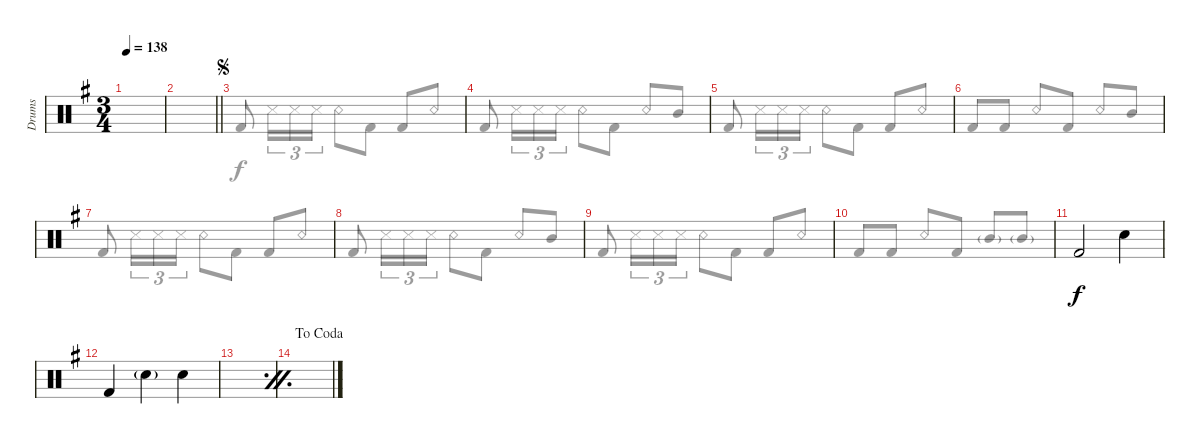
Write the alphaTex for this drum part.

\defaultSystemsLayout 4
\bracketExtendMode groupsimilarinstruments
\otherSystemsTrackNameOrientation horizontal
\track ("Drumkit" "Drums") {instrument percussion}
\staff {score}
\articulation defaults
\voice
\ts (3 4)
\scale
0.27752
\tempo 138
\accidentals auto
\clef neutral
\ottava regular
\simile none
\ks eminor
|
\scale
0.237483
\barLineRight lightlight
|
\scale
0.283172
\jump segno
|
\scale
0.23135 |
\scale
0.264197 |
\scale
0.219284 |
\scale
0.25944 |
\scale
0.26789 |
\scale
0.226075 |
\scale
0.235089 |
\scale
0.381933 "Kick (hit) 2"{acc forcenatural}.2{beam Up} "Snare (hit) 2"{acc forcenatural}.4{beam Down} |
\scale
0.445449 "Kick (hit) 2"{acc forcenatural}.4{beam Up} "Snare (hit) 2"{g acc forcenatural}.4{beam Down} "Snare (hit) 2"{acc forcenatural}.4{beam Down} |
\scale
0.0631793
\simile firstofdouble
|
\scale
0.0666495
\jump dacoda
\simile secondofdouble
|
\scale
0.494887
\simile none
|
\scale
0.662779
\voice
\clef neutral
\ottava regular
\simile none
\ks eminor
|
\barLineRight lightlight
|
"Kick (hit) 2"{acc forcenatural}.8{beam Up} "Snare (side stick) 3"{acc forcenatural}.16{tu (3 2) beam Down} "Snare (side stick) 3"{acc forcenatural}.16{tu (3 2) beam Down} "Snare (side stick) 3"{acc forcenatural}.16{tu (3 2) beam Down} "Snare (rim shot)"{acc forcenatural}.8{beam Down} "Kick (hit) 2"{acc forcenatural}.8{beam Up} "Kick (hit) 2"{acc forcenatural}.8{beam Up} "Snare (rim shot)"{acc forcenatural}.8{beam Up} |
"Kick (hit) 2"{acc forcenatural}.8{beam Up} "Snare (side stick) 3"{acc forcenatural}.16{tu (3 2) beam Down} "Snare (side stick) 3"{acc forcenatural}.16{tu (3 2) beam Down} "Snare (side stick) 3"{acc forcenatural}.16{tu (3 2) beam Down} "Snare (rim shot)"{acc forcenatural}.8{beam Down} "Kick (hit) 2"{acc forcenatural}.8{beam Up} "Snare (rim shot)"{acc forcenatural}.8{beam Up} "Mid Tom (hit)"{acc forcenatural}.8{beam Up} |
"Kick (hit) 2"{acc forcenatural}.8{beam Up} "Snare (side stick) 3"{acc forcenatural}.16{tu (3 2) beam Down} "Snare (side stick) 3"{acc forcenatural}.16{tu (3 2) beam Down} "Snare (side stick) 3"{acc forcenatural}.16{tu (3 2) beam Down} "Snare (rim shot)"{acc forcenatural}.8{beam Down} "Kick (hit) 2"{acc forcenatural}.8{beam Up} "Kick (hit) 2"{acc forcenatural}.8{beam Up} "Snare (rim shot)"{acc forcenatural}.8{beam Up} |
"Kick (hit) 2"{acc forcenatural}.8{beam Up} "Kick (hit) 2"{acc forcenatural}.8{beam Up} "Snare (rim shot)"{acc forcenatural}.8{beam Up} "Kick (hit) 2"{acc forcenatural}.8{beam Up} "Snare (rim shot)"{acc forcenatural}.8{beam Up} "Mid Tom (hit)"{acc forcenatural}.8{beam Up} |
"Kick (hit) 2"{acc forcenatural}.8{beam Up} "Snare (side stick) 3"{acc forcenatural}.16{tu (3 2) beam Down} "Snare (side stick) 3"{acc forcenatural}.16{tu (3 2) beam Down} "Snare (side stick) 3"{acc forcenatural}.16{tu (3 2) beam Down} "Snare (rim shot)"{acc forcenatural}.8{beam Down} "Kick (hit) 2"{acc forcenatural}.8{beam Up} "Kick (hit) 2"{acc forcenatural}.8{beam Up} "Snare (rim shot)"{acc forcenatural}.8{beam Up} |
"Kick (hit) 2"{acc forcenatural}.8{beam Up} "Snare (side stick) 3"{acc forcenatural}.16{tu (3 2) beam Down} "Snare (side stick) 3"{acc forcenatural}.16{tu (3 2) beam Down} "Snare (side stick) 3"{acc forcenatural}.16{tu (3 2) beam Down} "Snare (rim shot)"{acc forcenatural}.8{beam Down} "Kick (hit) 2"{acc forcenatural}.8{beam Up} "Snare (rim shot)"{acc forcenatural}.8{beam Up} "Mid Tom (hit)"{acc forcenatural}.8{beam Up} |
"Kick (hit) 2"{acc forcenatural}.8{beam Up} "Snare (side stick) 3"{acc forcenatural}.16{tu (3 2) beam Down} "Snare (side stick) 3"{acc forcenatural}.16{tu (3 2) beam Down} "Snare (side stick) 3"{acc forcenatural}.16{tu (3 2) beam Down} "Snare (rim shot)"{acc forcenatural}.8{beam Down} "Kick (hit) 2"{acc forcenatural}.8{beam Up} "Kick (hit) 2"{acc forcenatural}.8{beam Up} "Snare (rim shot)"{acc forcenatural}.8{beam Up} |
"Kick (hit) 2"{acc forcenatural}.8{beam Up} "Kick (hit) 2"{acc forcenatural}.8{beam Up} "Snare (rim shot)"{acc forcenatural}.8{beam Up} "Kick (hit) 2"{acc forcenatural}.8{beam Up} "Mid Tom (hit)"{g acc forcenatural}.8{beam Up} "Mid Tom (hit)"{g acc forcenatural}.8{beam Up} |
|
|
\simile firstofdouble
|
\simile secondofdouble
|
\simile none
|
